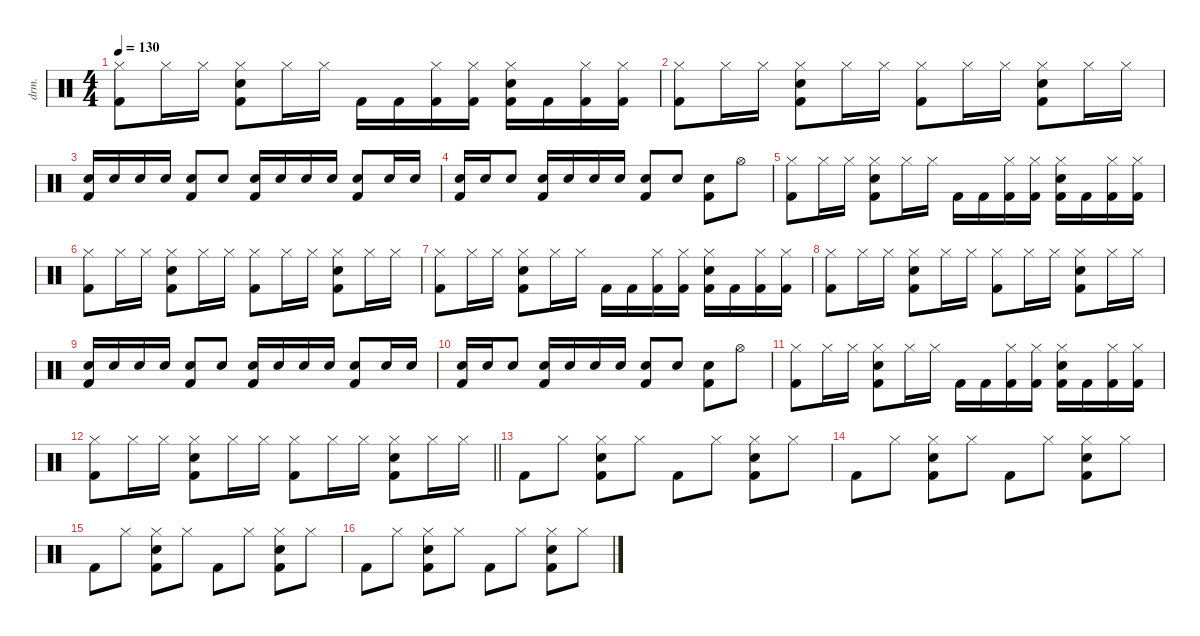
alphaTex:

\defaultSystemsLayout 4
\hideDynamics
\bracketExtendMode nobrackets
\otherSystemsTrackNameOrientation horizontal
\track ("Percussion" "drm.") {defaultSystemsLayout 4 instrument percussion}
\staff {score}
\articulation defaults
\ts (4 4)
\tempo 130
\clef neutral
\ks c
("Hi-Hat (closed)" "Kick (hit) 2").8{dy f beam Down} "Hi-Hat (closed)".16{beam Down} "Hi-Hat (closed)".16{beam Down} ("Hi-Hat (closed)" "Snare (hit) 2" "Kick (hit) 2").8{beam Down} "Hi-Hat (closed)".16{beam Down} "Hi-Hat (closed)".16{beam Down} "Kick (hit) 2".16{beam Down} "Kick (hit) 2".16{beam Down} ("Hi-Hat (closed)" "Kick (hit) 2").16{beam Down} ("Hi-Hat (closed)" "Kick (hit) 2").16{beam Down} ("Hi-Hat (closed)" "Snare (hit) 2" "Kick (hit) 2").16{beam Down} "Kick (hit) 2".16{beam Down} ("Hi-Hat (closed)" "Kick (hit) 2").16{beam Down} ("Hi-Hat (closed)" "Kick (hit) 2").16{beam Down} |
("Hi-Hat (closed)" "Kick (hit) 2").8{beam Down} "Hi-Hat (closed)".16{beam Down} "Hi-Hat (closed)".16{beam Down} ("Hi-Hat (closed)" "Snare (hit) 2" "Kick (hit) 2").8{beam Down} "Hi-Hat (closed)".16{beam Down} "Hi-Hat (closed)".16{beam Down} ("Hi-Hat (closed)" "Kick (hit) 2").8{beam Down} "Hi-Hat (closed)".16{beam Down} "Hi-Hat (closed)".16{beam Down} ("Hi-Hat (closed)" "Snare (hit) 2" "Kick (hit) 2").8{beam Down} "Hi-Hat (closed)".16{beam Down} "Hi-Hat (closed)".16{beam Down} |
("Snare (hit) 2" "Kick (hit) 2").16{beam Up} "Snare (hit) 2".16{beam Up} "Snare (hit) 2".16{beam Up} "Snare (hit) 2".16{beam Up} ("Snare (hit) 2" "Kick (hit) 2").8{beam Up} "Snare (hit) 2".8{beam Up} ("Snare (hit) 2" "Kick (hit) 2").16{beam Up} "Snare (hit) 2".16{beam Up} "Snare (hit) 2".16{beam Up} "Snare (hit) 2".16{beam Up} ("Snare (hit) 2" "Kick (hit) 2").8{beam Up} "Snare (hit) 2".16{beam Up} "Snare (hit) 2".16{beam Up} |
("Snare (hit) 2" "Kick (hit) 2").16{beam Up} "Snare (hit) 2".16{beam Up} "Snare (hit) 2".8{beam Up} ("Snare (hit) 2" "Kick (hit) 2").16{beam Up} "Snare (hit) 2".16{beam Up} "Snare (hit) 2".16{beam Up} "Snare (hit) 2".16{beam Up} ("Snare (hit) 2" "Kick (hit) 2").8{beam Up} "Hand Clap (hit)".8{beam Up} ("Hand Clap (hit)" "Kick (hit) 2").8{beam Down} "Hi-Hat (open)".8{beam Down} |
("Hi-Hat (closed)" "Kick (hit) 2").8{beam Down} "Hi-Hat (closed)".16{beam Down} "Hi-Hat (closed)".16{beam Down} ("Hi-Hat (closed)" "Snare (hit) 2" "Kick (hit) 2").8{beam Down} "Hi-Hat (closed)".16{beam Down} "Hi-Hat (closed)".16{beam Down} "Kick (hit) 2".16{beam Down} "Kick (hit) 2".16{beam Down} ("Hi-Hat (closed)" "Kick (hit) 2").16{beam Down} ("Hi-Hat (closed)" "Kick (hit) 2").16{beam Down} ("Hi-Hat (closed)" "Snare (hit) 2" "Kick (hit) 2").16{beam Down} "Kick (hit) 2".16{beam Down} ("Hi-Hat (closed)" "Kick (hit) 2").16{beam Down} ("Hi-Hat (closed)" "Kick (hit) 2").16{beam Down} |
("Hi-Hat (closed)" "Kick (hit) 2").8{beam Down} "Hi-Hat (closed)".16{beam Down} "Hi-Hat (closed)".16{beam Down} ("Hi-Hat (closed)" "Snare (hit) 2" "Kick (hit) 2").8{beam Down} "Hi-Hat (closed)".16{beam Down} "Hi-Hat (closed)".16{beam Down} ("Hi-Hat (closed)" "Kick (hit) 2").8{beam Down} "Hi-Hat (closed)".16{beam Down} "Hi-Hat (closed)".16{beam Down} ("Hi-Hat (closed)" "Snare (hit) 2" "Kick (hit) 2").8{beam Down} "Hi-Hat (closed)".16{beam Down} "Hi-Hat (closed)".16{beam Down} |
("Hi-Hat (closed)" "Kick (hit) 2").8{beam Down} "Hi-Hat (closed)".16{beam Down} "Hi-Hat (closed)".16{beam Down} ("Hi-Hat (closed)" "Snare (hit) 2" "Kick (hit) 2").8{beam Down} "Hi-Hat (closed)".16{beam Down} "Hi-Hat (closed)".16{beam Down} "Kick (hit) 2".16{beam Down} "Kick (hit) 2".16{beam Down} ("Hi-Hat (closed)" "Kick (hit) 2").16{beam Down} ("Hi-Hat (closed)" "Kick (hit) 2").16{beam Down} ("Hi-Hat (closed)" "Snare (hit) 2" "Kick (hit) 2").16{beam Down} "Kick (hit) 2".16{beam Down} ("Hi-Hat (closed)" "Kick (hit) 2").16{beam Down} ("Hi-Hat (closed)" "Kick (hit) 2").16{beam Down} |
("Hi-Hat (closed)" "Kick (hit) 2").8{beam Down} "Hi-Hat (closed)".16{beam Down} "Hi-Hat (closed)".16{beam Down} ("Hi-Hat (closed)" "Snare (hit) 2" "Kick (hit) 2").8{beam Down} "Hi-Hat (closed)".16{beam Down} "Hi-Hat (closed)".16{beam Down} ("Hi-Hat (closed)" "Kick (hit) 2").8{beam Down} "Hi-Hat (closed)".16{beam Down} "Hi-Hat (closed)".16{beam Down} ("Hi-Hat (closed)" "Snare (hit) 2" "Kick (hit) 2").8{beam Down} "Hi-Hat (closed)".16{beam Down} "Hi-Hat (closed)".16{beam Down} |
("Snare (hit) 2" "Kick (hit) 2").16{beam Up} "Snare (hit) 2".16{beam Up} "Snare (hit) 2".16{beam Up} "Snare (hit) 2".16{beam Up} ("Snare (hit) 2" "Kick (hit) 2").8{beam Up} "Snare (hit) 2".8{beam Up} ("Snare (hit) 2" "Kick (hit) 2").16{beam Up} "Snare (hit) 2".16{beam Up} "Snare (hit) 2".16{beam Up} "Snare (hit) 2".16{beam Up} ("Snare (hit) 2" "Kick (hit) 2").8{beam Up} "Snare (hit) 2".16{beam Up} "Snare (hit) 2".16{beam Up} |
("Snare (hit) 2" "Kick (hit) 2").16{beam Up} "Snare (hit) 2".16{beam Up} "Snare (hit) 2".8{beam Up} ("Snare (hit) 2" "Kick (hit) 2").16{beam Up} "Snare (hit) 2".16{beam Up} "Snare (hit) 2".16{beam Up} "Snare (hit) 2".16{beam Up} ("Snare (hit) 2" "Kick (hit) 2").8{beam Up} "Hand Clap (hit)".8{beam Up} ("Hand Clap (hit)" "Kick (hit) 2").8{beam Down} "Hi-Hat (open)".8{beam Down} |
("Hi-Hat (closed)" "Kick (hit) 2").8{beam Down} "Hi-Hat (closed)".16{beam Down} "Hi-Hat (closed)".16{beam Down} ("Hi-Hat (closed)" "Snare (hit) 2" "Kick (hit) 2").8{beam Down} "Hi-Hat (closed)".16{beam Down} "Hi-Hat (closed)".16{beam Down} "Kick (hit) 2".16{beam Down} "Kick (hit) 2".16{beam Down} ("Hi-Hat (closed)" "Kick (hit) 2").16{beam Down} ("Hi-Hat (closed)" "Kick (hit) 2").16{beam Down} ("Hi-Hat (closed)" "Snare (hit) 2" "Kick (hit) 2").16{beam Down} "Kick (hit) 2".16{beam Down} ("Hi-Hat (closed)" "Kick (hit) 2").16{beam Down} ("Hi-Hat (closed)" "Kick (hit) 2").16{beam Down} |
\barLineRight lightlight
("Hi-Hat (closed)" "Kick (hit) 2").8{beam Down} "Hi-Hat (closed)".16{beam Down} "Hi-Hat (closed)".16{beam Down} ("Hi-Hat (closed)" "Snare (hit) 2" "Kick (hit) 2").8{beam Down} "Hi-Hat (closed)".16{beam Down} "Hi-Hat (closed)".16{beam Down} ("Hi-Hat (closed)" "Kick (hit) 2").8{beam Down} "Hi-Hat (closed)".16{beam Down} "Hi-Hat (closed)".16{beam Down} ("Hi-Hat (closed)" "Snare (hit) 2" "Kick (hit) 2").8{beam Down} "Hi-Hat (closed)".16{beam Down} "Hi-Hat (closed)".16{beam Down} |
"Kick (hit) 2".8{beam Down} "Hi-Hat (closed)".8{beam Down} ("Hi-Hat (closed)" "Snare (hit) 2" "Kick (hit) 2").8{beam Down} "Hi-Hat (closed)".8{beam Down} "Kick (hit) 2".8{beam Down} "Hi-Hat (closed)".8{beam Down} ("Hi-Hat (closed)" "Snare (hit) 2" "Kick (hit) 2").8{beam Down} "Hi-Hat (closed)".8{beam Down} |
"Kick (hit) 2".8{beam Down} "Hi-Hat (closed)".8{beam Down} ("Hi-Hat (closed)" "Snare (hit) 2" "Kick (hit) 2").8{beam Down} "Hi-Hat (closed)".8{beam Down} "Kick (hit) 2".8{beam Down} "Hi-Hat (closed)".8{beam Down} ("Hi-Hat (closed)" "Snare (hit) 2" "Kick (hit) 2").8{beam Down} "Hi-Hat (closed)".8{beam Down} |
"Kick (hit) 2".8{beam Down} "Hi-Hat (closed)".8{beam Down} ("Hi-Hat (closed)" "Snare (hit) 2" "Kick (hit) 2").8{beam Down} "Hi-Hat (closed)".8{beam Down} "Kick (hit) 2".8{beam Down} "Hi-Hat (closed)".8{beam Down} ("Hi-Hat (closed)" "Snare (hit) 2" "Kick (hit) 2").8{beam Down} "Hi-Hat (closed)".8{beam Down} |
"Kick (hit) 2".8{beam Down} "Hi-Hat (closed)".8{beam Down} ("Hi-Hat (closed)" "Snare (hit) 2" "Kick (hit) 2").8{beam Down} "Hi-Hat (closed)".8{beam Down} "Kick (hit) 2".8{beam Down} "Hi-Hat (closed)".8{beam Down} ("Hi-Hat (closed)" "Snare (hit) 2" "Kick (hit) 2").8{beam Down} "Hi-Hat (closed)".8{beam Down}
